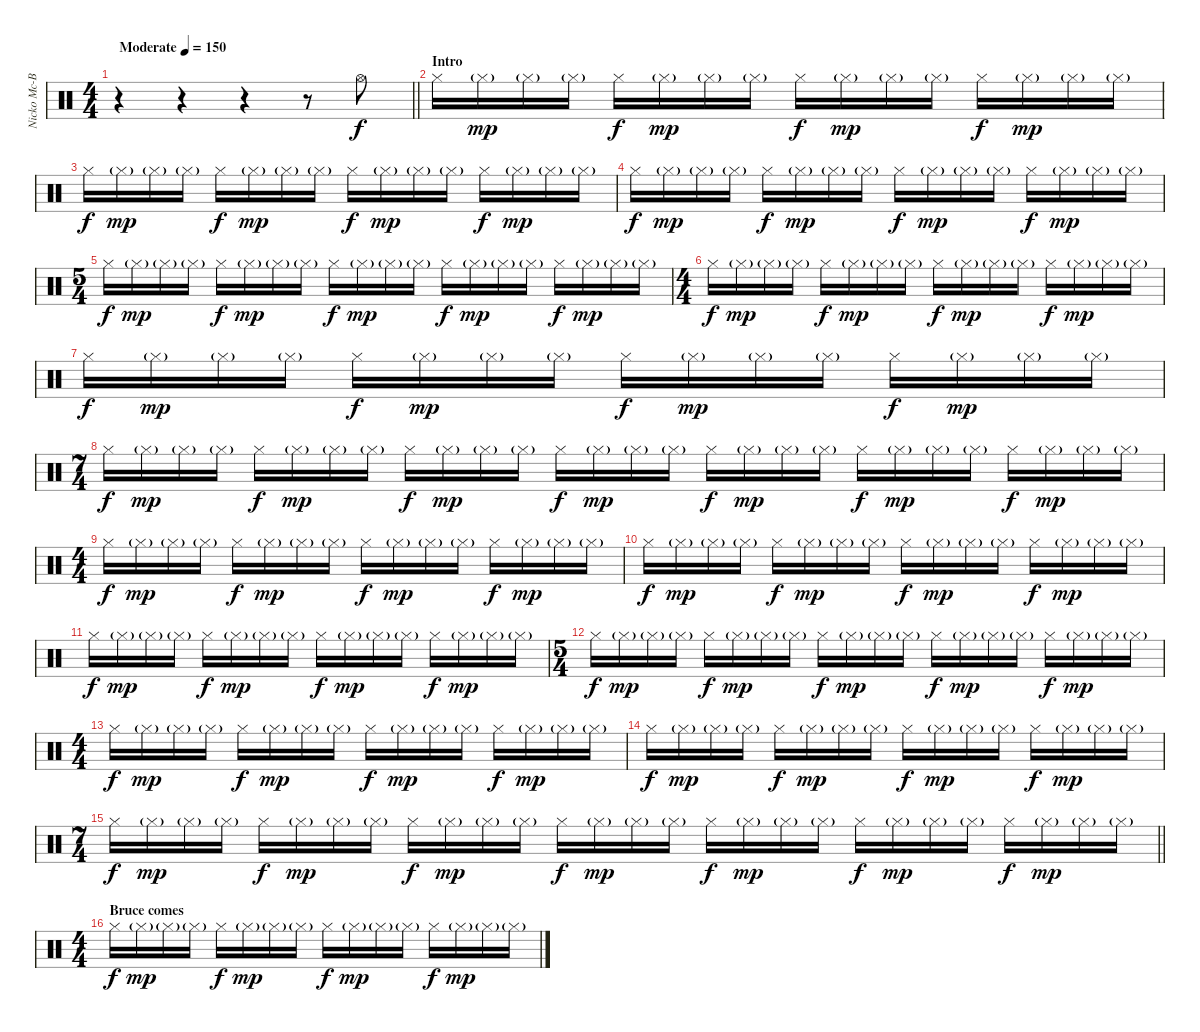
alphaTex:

\track ("Nicko Mc-Brain" "Nicko Mc-B") {instrument percussion}
\staff {score}
\articulation defaults
\ts (4 4)
\tempo (150 "Moderate")
\clef neutral
\barLineRight lightlight
\ks c
r.4{dy f} r.4 r.4 r.8 "Hi-Hat (open)".8 |
\section ("" "Intro")
"Hi-Hat (closed)".16 "Hi-Hat (closed)"{g}.16{dy mp} "Hi-Hat (closed)"{g}.16 "Hi-Hat (closed)"{g}.16 "Hi-Hat (closed)".16{dy f} "Hi-Hat (closed)"{g}.16{dy mp} "Hi-Hat (closed)"{g}.16 "Hi-Hat (closed)"{g}.16 "Hi-Hat (closed)".16{dy f} "Hi-Hat (closed)"{g}.16{dy mp} "Hi-Hat (closed)"{g}.16 "Hi-Hat (closed)"{g}.16 "Hi-Hat (closed)".16{dy f} "Hi-Hat (closed)"{g}.16{dy mp} "Hi-Hat (closed)"{g}.16 "Hi-Hat (closed)"{g}.16 |
"Hi-Hat (closed)".16{dy f} "Hi-Hat (closed)"{g}.16{dy mp} "Hi-Hat (closed)"{g}.16 "Hi-Hat (closed)"{g}.16 "Hi-Hat (closed)".16{dy f} "Hi-Hat (closed)"{g}.16{dy mp} "Hi-Hat (closed)"{g}.16 "Hi-Hat (closed)"{g}.16 "Hi-Hat (closed)".16{dy f} "Hi-Hat (closed)"{g}.16{dy mp} "Hi-Hat (closed)"{g}.16 "Hi-Hat (closed)"{g}.16 "Hi-Hat (closed)".16{dy f} "Hi-Hat (closed)"{g}.16{dy mp} "Hi-Hat (closed)"{g}.16 "Hi-Hat (closed)"{g}.16 |
"Hi-Hat (closed)".16{dy f} "Hi-Hat (closed)"{g}.16{dy mp} "Hi-Hat (closed)"{g}.16 "Hi-Hat (closed)"{g}.16 "Hi-Hat (closed)".16{dy f} "Hi-Hat (closed)"{g}.16{dy mp} "Hi-Hat (closed)"{g}.16 "Hi-Hat (closed)"{g}.16 "Hi-Hat (closed)".16{dy f} "Hi-Hat (closed)"{g}.16{dy mp} "Hi-Hat (closed)"{g}.16 "Hi-Hat (closed)"{g}.16 "Hi-Hat (closed)".16{dy f} "Hi-Hat (closed)"{g}.16{dy mp} "Hi-Hat (closed)"{g}.16 "Hi-Hat (closed)"{g}.16 |
\ts (5 4)
"Hi-Hat (closed)".16{dy f} "Hi-Hat (closed)"{g}.16{dy mp} "Hi-Hat (closed)"{g}.16 "Hi-Hat (closed)"{g}.16 "Hi-Hat (closed)".16{dy f} "Hi-Hat (closed)"{g}.16{dy mp} "Hi-Hat (closed)"{g}.16 "Hi-Hat (closed)"{g}.16 "Hi-Hat (closed)".16{dy f} "Hi-Hat (closed)"{g}.16{dy mp} "Hi-Hat (closed)"{g}.16 "Hi-Hat (closed)"{g}.16 "Hi-Hat (closed)".16{dy f} "Hi-Hat (closed)"{g}.16{dy mp} "Hi-Hat (closed)"{g}.16 "Hi-Hat (closed)"{g}.16 "Hi-Hat (closed)".16{dy f} "Hi-Hat (closed)"{g}.16{dy mp} "Hi-Hat (closed)"{g}.16 "Hi-Hat (closed)"{g}.16 |
\ts (4 4)
"Hi-Hat (closed)".16{dy f} "Hi-Hat (closed)"{g}.16{dy mp} "Hi-Hat (closed)"{g}.16 "Hi-Hat (closed)"{g}.16 "Hi-Hat (closed)".16{dy f} "Hi-Hat (closed)"{g}.16{dy mp} "Hi-Hat (closed)"{g}.16 "Hi-Hat (closed)"{g}.16 "Hi-Hat (closed)".16{dy f} "Hi-Hat (closed)"{g}.16{dy mp} "Hi-Hat (closed)"{g}.16 "Hi-Hat (closed)"{g}.16 "Hi-Hat (closed)".16{dy f} "Hi-Hat (closed)"{g}.16{dy mp} "Hi-Hat (closed)"{g}.16 "Hi-Hat (closed)"{g}.16 |
"Hi-Hat (closed)".16{dy f} "Hi-Hat (closed)"{g}.16{dy mp} "Hi-Hat (closed)"{g}.16 "Hi-Hat (closed)"{g}.16 "Hi-Hat (closed)".16{dy f} "Hi-Hat (closed)"{g}.16{dy mp} "Hi-Hat (closed)"{g}.16 "Hi-Hat (closed)"{g}.16 "Hi-Hat (closed)".16{dy f} "Hi-Hat (closed)"{g}.16{dy mp} "Hi-Hat (closed)"{g}.16 "Hi-Hat (closed)"{g}.16 "Hi-Hat (closed)".16{dy f} "Hi-Hat (closed)"{g}.16{dy mp} "Hi-Hat (closed)"{g}.16 "Hi-Hat (closed)"{g}.16 |
\ts (7 4)
"Hi-Hat (closed)".16{dy f} "Hi-Hat (closed)"{g}.16{dy mp} "Hi-Hat (closed)"{g}.16 "Hi-Hat (closed)"{g}.16 "Hi-Hat (closed)".16{dy f} "Hi-Hat (closed)"{g}.16{dy mp} "Hi-Hat (closed)"{g}.16 "Hi-Hat (closed)"{g}.16 "Hi-Hat (closed)".16{dy f} "Hi-Hat (closed)"{g}.16{dy mp} "Hi-Hat (closed)"{g}.16 "Hi-Hat (closed)"{g}.16 "Hi-Hat (closed)".16{dy f} "Hi-Hat (closed)"{g}.16{dy mp} "Hi-Hat (closed)"{g}.16 "Hi-Hat (closed)"{g}.16 "Hi-Hat (closed)".16{dy f} "Hi-Hat (closed)"{g}.16{dy mp} "Hi-Hat (closed)"{g}.16 "Hi-Hat (closed)"{g}.16 "Hi-Hat (closed)".16{dy f} "Hi-Hat (closed)"{g}.16{dy mp} "Hi-Hat (closed)"{g}.16 "Hi-Hat (closed)"{g}.16 "Hi-Hat (closed)".16{dy f} "Hi-Hat (closed)"{g}.16{dy mp} "Hi-Hat (closed)"{g}.16 "Hi-Hat (closed)"{g}.16 |
\ts (4 4)
"Hi-Hat (closed)".16{dy f} "Hi-Hat (closed)"{g}.16{dy mp} "Hi-Hat (closed)"{g}.16 "Hi-Hat (closed)"{g}.16 "Hi-Hat (closed)".16{dy f} "Hi-Hat (closed)"{g}.16{dy mp} "Hi-Hat (closed)"{g}.16 "Hi-Hat (closed)"{g}.16 "Hi-Hat (closed)".16{dy f} "Hi-Hat (closed)"{g}.16{dy mp} "Hi-Hat (closed)"{g}.16 "Hi-Hat (closed)"{g}.16 "Hi-Hat (closed)".16{dy f} "Hi-Hat (closed)"{g}.16{dy mp} "Hi-Hat (closed)"{g}.16 "Hi-Hat (closed)"{g}.16 |
"Hi-Hat (closed)".16{dy f} "Hi-Hat (closed)"{g}.16{dy mp} "Hi-Hat (closed)"{g}.16 "Hi-Hat (closed)"{g}.16 "Hi-Hat (closed)".16{dy f} "Hi-Hat (closed)"{g}.16{dy mp} "Hi-Hat (closed)"{g}.16 "Hi-Hat (closed)"{g}.16 "Hi-Hat (closed)".16{dy f} "Hi-Hat (closed)"{g}.16{dy mp} "Hi-Hat (closed)"{g}.16 "Hi-Hat (closed)"{g}.16 "Hi-Hat (closed)".16{dy f} "Hi-Hat (closed)"{g}.16{dy mp} "Hi-Hat (closed)"{g}.16 "Hi-Hat (closed)"{g}.16 |
"Hi-Hat (closed)".16{dy f} "Hi-Hat (closed)"{g}.16{dy mp} "Hi-Hat (closed)"{g}.16 "Hi-Hat (closed)"{g}.16 "Hi-Hat (closed)".16{dy f} "Hi-Hat (closed)"{g}.16{dy mp} "Hi-Hat (closed)"{g}.16 "Hi-Hat (closed)"{g}.16 "Hi-Hat (closed)".16{dy f} "Hi-Hat (closed)"{g}.16{dy mp} "Hi-Hat (closed)"{g}.16 "Hi-Hat (closed)"{g}.16 "Hi-Hat (closed)".16{dy f} "Hi-Hat (closed)"{g}.16{dy mp} "Hi-Hat (closed)"{g}.16 "Hi-Hat (closed)"{g}.16 |
\ts (5 4)
"Hi-Hat (closed)".16{dy f} "Hi-Hat (closed)"{g}.16{dy mp} "Hi-Hat (closed)"{g}.16 "Hi-Hat (closed)"{g}.16 "Hi-Hat (closed)".16{dy f} "Hi-Hat (closed)"{g}.16{dy mp} "Hi-Hat (closed)"{g}.16 "Hi-Hat (closed)"{g}.16 "Hi-Hat (closed)".16{dy f} "Hi-Hat (closed)"{g}.16{dy mp} "Hi-Hat (closed)"{g}.16 "Hi-Hat (closed)"{g}.16 "Hi-Hat (closed)".16{dy f} "Hi-Hat (closed)"{g}.16{dy mp} "Hi-Hat (closed)"{g}.16 "Hi-Hat (closed)"{g}.16 "Hi-Hat (closed)".16{dy f} "Hi-Hat (closed)"{g}.16{dy mp} "Hi-Hat (closed)"{g}.16 "Hi-Hat (closed)"{g}.16 |
\ts (4 4)
"Hi-Hat (closed)".16{dy f} "Hi-Hat (closed)"{g}.16{dy mp} "Hi-Hat (closed)"{g}.16 "Hi-Hat (closed)"{g}.16 "Hi-Hat (closed)".16{dy f} "Hi-Hat (closed)"{g}.16{dy mp} "Hi-Hat (closed)"{g}.16 "Hi-Hat (closed)"{g}.16 "Hi-Hat (closed)".16{dy f} "Hi-Hat (closed)"{g}.16{dy mp} "Hi-Hat (closed)"{g}.16 "Hi-Hat (closed)"{g}.16 "Hi-Hat (closed)".16{dy f} "Hi-Hat (closed)"{g}.16{dy mp} "Hi-Hat (closed)"{g}.16 "Hi-Hat (closed)"{g}.16 |
"Hi-Hat (closed)".16{dy f} "Hi-Hat (closed)"{g}.16{dy mp} "Hi-Hat (closed)"{g}.16 "Hi-Hat (closed)"{g}.16 "Hi-Hat (closed)".16{dy f} "Hi-Hat (closed)"{g}.16{dy mp} "Hi-Hat (closed)"{g}.16 "Hi-Hat (closed)"{g}.16 "Hi-Hat (closed)".16{dy f} "Hi-Hat (closed)"{g}.16{dy mp} "Hi-Hat (closed)"{g}.16 "Hi-Hat (closed)"{g}.16 "Hi-Hat (closed)".16{dy f} "Hi-Hat (closed)"{g}.16{dy mp} "Hi-Hat (closed)"{g}.16 "Hi-Hat (closed)"{g}.16 |
\ts (7 4)
\barLineRight lightlight "Hi-Hat (closed)".16{dy f} "Hi-Hat (closed)"{g}.16{dy mp} "Hi-Hat (closed)"{g}.16 "Hi-Hat (closed)"{g}.16 "Hi-Hat (closed)".16{dy f} "Hi-Hat (closed)"{g}.16{dy mp} "Hi-Hat (closed)"{g}.16 "Hi-Hat (closed)"{g}.16 "Hi-Hat (closed)".16{dy f} "Hi-Hat (closed)"{g}.16{dy mp} "Hi-Hat (closed)"{g}.16 "Hi-Hat (closed)"{g}.16 "Hi-Hat (closed)".16{dy f} "Hi-Hat (closed)"{g}.16{dy mp} "Hi-Hat (closed)"{g}.16 "Hi-Hat (closed)"{g}.16 "Hi-Hat (closed)".16{dy f} "Hi-Hat (closed)"{g}.16{dy mp} "Hi-Hat (closed)"{g}.16 "Hi-Hat (closed)"{g}.16 "Hi-Hat (closed)".16{dy f} "Hi-Hat (closed)"{g}.16{dy mp} "Hi-Hat (closed)"{g}.16 "Hi-Hat (closed)"{g}.16 "Hi-Hat (closed)".16{dy f} "Hi-Hat (closed)"{g}.16{dy mp} "Hi-Hat (closed)"{g}.16 "Hi-Hat (closed)"{g}.16
|
\ts (4 4)
\section ("" "Bruce comes")
"Hi-Hat (closed)".16{dy f} "Hi-Hat (closed)"{g}.16{dy mp} "Hi-Hat (closed)"{g}.16 "Hi-Hat (closed)"{g}.16 "Hi-Hat (closed)".16{dy f} "Hi-Hat (closed)"{g}.16{dy mp} "Hi-Hat (closed)"{g}.16 "Hi-Hat (closed)"{g}.16 "Hi-Hat (closed)".16{dy f} "Hi-Hat (closed)"{g}.16{dy mp} "Hi-Hat (closed)"{g}.16 "Hi-Hat (closed)"{g}.16 "Hi-Hat (closed)".16{dy f} "Hi-Hat (closed)"{g}.16{dy mp} "Hi-Hat (closed)"{g}.16 "Hi-Hat (closed)"{g}.16
